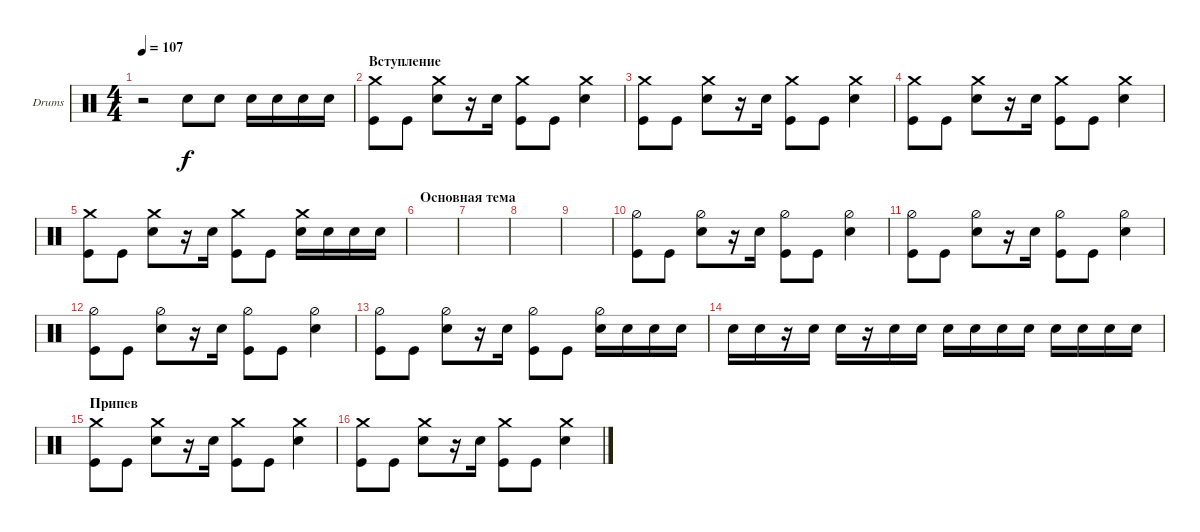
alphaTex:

\defaultSystemsLayout 4
\bracketExtendMode groupsimilarinstruments
\firstSystemTrackNameOrientation horizontal
\otherSystemsTrackNameOrientation horizontal
\track ("Drumkit" "Drums") {instrument percussion}
\staff {score}
\articulation defaults
\ts (4 4)
\tempo 107
\clef neutral
\ks c
r.2{dy f} "Snare (hit) 2".8 "Snare (hit) 2".8 "Snare (hit) 2".16 "Snare (hit) 2".16 "Snare (hit) 2".16 "Snare (hit) 2".16 |
\section ("" "Вступление")
("Kick (hit)" "Crash medium (hit)").8 "Kick (hit)".8 ("Snare (hit) 2" "Crash medium (hit)").8 r.16 "Snare (hit) 2".16 ("Kick (hit)" "Crash medium (hit)").8 "Kick (hit)".8 ("Snare (hit) 2" "Crash medium (hit)").4 |
("Kick (hit)" "Crash medium (hit)").8 "Kick (hit)".8 ("Snare (hit) 2" "Crash medium (hit)").8 r.16 "Snare (hit) 2".16 ("Kick (hit)" "Crash medium (hit)").8 "Kick (hit)".8 ("Snare (hit) 2" "Crash medium (hit)").4 |
("Kick (hit)" "Crash medium (hit)").8 "Kick (hit)".8 ("Snare (hit) 2" "Crash medium (hit)").8 r.16 "Snare (hit) 2".16 ("Kick (hit)" "Crash medium (hit)").8 "Kick (hit)".8 ("Snare (hit) 2" "Crash medium (hit)").4 |
("Kick (hit)" "Crash medium (hit)").8 "Kick (hit)".8 ("Snare (hit) 2" "Crash medium (hit)").8 r.16 "Snare (hit) 2".16 ("Kick (hit)" "Crash medium (hit)").8 "Kick (hit)".8 ("Snare (hit) 2" "Crash medium (hit)").16 "Snare (hit) 2".16 "Snare (hit) 2".16 "Snare (hit) 2".16 |
\section ("" "Основная тема")
|
|
|
|
("Kick (hit)" "Hi-Hat (half)").8 "Kick (hit)".8 ("Snare (hit) 2" "Hi-Hat (half)").8 r.16 "Snare (hit) 2".16 ("Kick (hit)" "Hi-Hat (half)").8 "Kick (hit)".8 ("Snare (hit) 2" "Hi-Hat (half)").4 |
("Kick (hit)" "Hi-Hat (half)").8 "Kick (hit)".8 ("Snare (hit) 2" "Hi-Hat (half)").8 r.16 "Snare (hit) 2".16 ("Kick (hit)" "Hi-Hat (half)").8 "Kick (hit)".8 ("Snare (hit) 2" "Hi-Hat (half)").4 |
("Kick (hit)" "Hi-Hat (half)").8 "Kick (hit)".8 ("Snare (hit) 2" "Hi-Hat (half)").8 r.16 "Snare (hit) 2".16 ("Kick (hit)" "Hi-Hat (half)").8 "Kick (hit)".8 ("Snare (hit) 2" "Hi-Hat (half)").4 |
("Kick (hit)" "Hi-Hat (half)").8 "Kick (hit)".8 ("Snare (hit) 2" "Hi-Hat (half)").8 r.16 "Snare (hit) 2".16 ("Kick (hit)" "Hi-Hat (half)").8 "Kick (hit)".8 ("Snare (hit) 2" "Hi-Hat (half)").16 "Snare (hit) 2".16 "Snare (hit) 2".16 "Snare (hit) 2".16 |
"Snare (hit) 2".16 "Snare (hit) 2".16 r.16 "Snare (hit) 2".16 "Snare (hit) 2".16 r.16 "Snare (hit) 2".16 "Snare (hit) 2".16 "Snare (hit) 2".16 "Snare (hit) 2".16 "Snare (hit) 2".16 "Snare (hit) 2".16 "Snare (hit) 2".16 "Snare (hit) 2".16 "Snare (hit) 2".16 "Snare (hit) 2".16 |
\section ("" "Припев")
("Kick (hit)" "Crash medium (hit)").8 "Kick (hit)".8 ("Snare (hit) 2" "Crash medium (hit)").8 r.16 "Snare (hit) 2".16 ("Kick (hit)" "Crash medium (hit)").8 "Kick (hit)".8 ("Snare (hit) 2" "Crash medium (hit)").4 |
("Kick (hit)" "Crash medium (hit)").8 "Kick (hit)".8 ("Snare (hit) 2" "Crash medium (hit)").8 r.16 "Snare (hit) 2".16 ("Kick (hit)" "Crash medium (hit)").8 "Kick (hit)".8 ("Snare (hit) 2" "Crash medium (hit)").4
